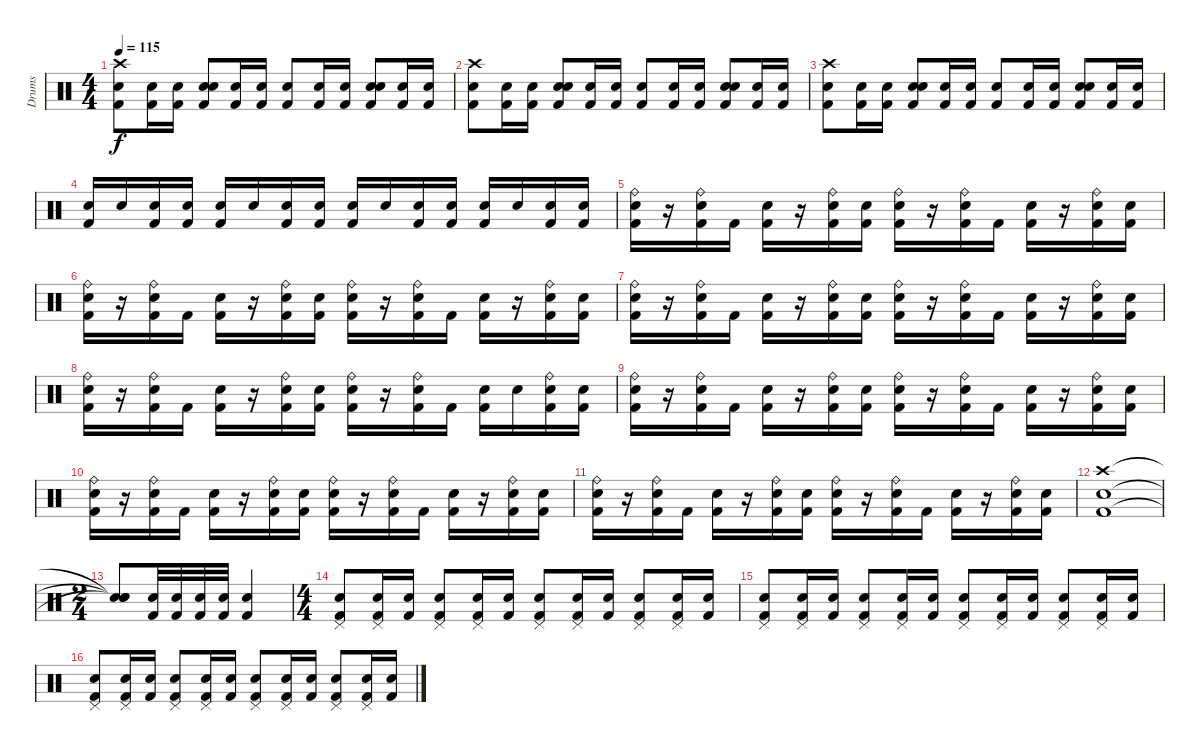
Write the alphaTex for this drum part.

\track ("Drums" "Drums") {instrument percussion}
\staff {score}
\articulation defaults
\ts (4 4)
\tempo 115
\clef neutral
\ks c
("Crash high (hit)" "Kick (hit) 2" "Snare (hit) 2").8{dy f} ("Kick (hit) 2" "Snare (hit) 2").16 ("Kick (hit) 2" "Snare (hit) 2").16 ("Electric Snare (hit)" "Kick (hit) 2" "Snare (hit) 2").8 ("Kick (hit) 2" "Snare (hit) 2").16 ("Kick (hit) 2" "Snare (hit) 2").16 ("Kick (hit) 2" "Snare (hit) 2").8 ("Kick (hit) 2" "Snare (hit) 2").16 ("Kick (hit) 2" "Snare (hit) 2").16 ("Electric Snare (hit)" "Kick (hit) 2" "Snare (hit) 2").8 ("Kick (hit) 2" "Snare (hit) 2").16 ("Kick (hit) 2" "Snare (hit) 2").16 |
("Crash high (hit)" "Kick (hit) 2" "Snare (hit) 2").8 ("Kick (hit) 2" "Snare (hit) 2").16 ("Kick (hit) 2" "Snare (hit) 2").16 ("Electric Snare (hit)" "Kick (hit) 2" "Snare (hit) 2").8 ("Kick (hit) 2" "Snare (hit) 2").16 ("Kick (hit) 2" "Snare (hit) 2").16 ("Kick (hit) 2" "Snare (hit) 2").8 ("Kick (hit) 2" "Snare (hit) 2").16 ("Kick (hit) 2" "Snare (hit) 2").16 ("Electric Snare (hit)" "Kick (hit) 2" "Snare (hit) 2").8 ("Kick (hit) 2" "Snare (hit) 2").16 ("Kick (hit) 2" "Snare (hit) 2").16 |
("Crash high (hit)" "Kick (hit) 2" "Snare (hit) 2").8 ("Kick (hit) 2" "Snare (hit) 2").16 ("Kick (hit) 2" "Snare (hit) 2").16 ("Electric Snare (hit)" "Kick (hit) 2" "Snare (hit) 2").8 ("Kick (hit) 2" "Snare (hit) 2").16 ("Kick (hit) 2" "Snare (hit) 2").16 ("Kick (hit) 2" "Snare (hit) 2").8 ("Kick (hit) 2" "Snare (hit) 2").16 ("Kick (hit) 2" "Snare (hit) 2").16 ("Electric Snare (hit)" "Kick (hit) 2" "Snare (hit) 2").8 ("Kick (hit) 2" "Snare (hit) 2").16 ("Kick (hit) 2" "Snare (hit) 2").16 |
("Kick (hit) 2" "Snare (hit) 2").16 "Snare (hit) 2".16 ("Kick (hit) 2" "Snare (hit) 2").16 ("Kick (hit) 2" "Snare (hit) 2").16 ("Kick (hit) 2" "Snare (hit) 2").16 "Snare (hit) 2".16 ("Kick (hit) 2" "Snare (hit) 2").16 ("Kick (hit) 2" "Snare (hit) 2").16 ("Kick (hit) 2" "Electric Snare (hit)").16 "Electric Snare (hit)".16 ("Kick (hit) 2" "Electric Snare (hit)").16 ("Kick (hit) 2" "Electric Snare (hit)").16 ("Kick (hit) 2" "Electric Snare (hit)").16 "Electric Snare (hit)".16 ("Kick (hit) 2" "Electric Snare (hit)").16 ("Kick (hit) 2" "Electric Snare (hit)").16 |
("Ride (bell)" "Snare (hit) 2" "Kick (hit) 2").16 r.16 ("Ride (bell)" "Snare (hit) 2" "Kick (hit) 2").16 "Kick (hit) 2".16 ("Electric Snare (hit)" "Kick (hit) 2").16 r.16 ("Ride (bell)" "Snare (hit) 2" "Kick (hit) 2").16 ("Snare (hit) 2" "Kick (hit) 2").16 ("Ride (bell)" "Snare (hit) 2" "Kick (hit) 2").16 r.16 ("Ride (bell)" "Snare (hit) 2" "Kick (hit) 2").16 "Kick (hit) 2".16 ("Electric Snare (hit)" "Kick (hit) 2").16 r.16 ("Ride (bell)" "Snare (hit) 2" "Kick (hit) 2").16 ("Snare (hit) 2" "Kick (hit) 2").16 |
("Ride (bell)" "Snare (hit) 2" "Kick (hit) 2").16 r.16 ("Ride (bell)" "Snare (hit) 2" "Kick (hit) 2").16 "Kick (hit) 2".16 ("Electric Snare (hit)" "Kick (hit) 2").16 r.16 ("Ride (bell)" "Snare (hit) 2" "Kick (hit) 2").16 ("Snare (hit) 2" "Kick (hit) 2").16 ("Ride (bell)" "Snare (hit) 2" "Kick (hit) 2").16 r.16 ("Ride (bell)" "Snare (hit) 2" "Kick (hit) 2").16 "Kick (hit) 2".16 ("Electric Snare (hit)" "Kick (hit) 2").16 r.16 ("Ride (bell)" "Snare (hit) 2" "Kick (hit) 2").16 ("Snare (hit) 2" "Kick (hit) 2").16 |
("Ride (bell)" "Snare (hit) 2" "Kick (hit) 2").16 r.16 ("Ride (bell)" "Snare (hit) 2" "Kick (hit) 2").16 "Kick (hit) 2".16 ("Electric Snare (hit)" "Kick (hit) 2").16 r.16 ("Ride (bell)" "Snare (hit) 2" "Kick (hit) 2").16 ("Snare (hit) 2" "Kick (hit) 2").16 ("Ride (bell)" "Snare (hit) 2" "Kick (hit) 2").16 r.16 ("Ride (bell)" "Snare (hit) 2" "Kick (hit) 2").16 "Kick (hit) 2".16 ("Electric Snare (hit)" "Kick (hit) 2").16 r.16 ("Ride (bell)" "Snare (hit) 2" "Kick (hit) 2").16 ("Snare (hit) 2" "Kick (hit) 2").16 |
("Ride (bell)" "Snare (hit) 2" "Kick (hit) 2").16 r.16 ("Ride (bell)" "Snare (hit) 2" "Kick (hit) 2").16 "Kick (hit) 2".16 ("Electric Snare (hit)" "Kick (hit) 2").16 r.16 ("Ride (bell)" "Snare (hit) 2" "Kick (hit) 2").16 ("Snare (hit) 2" "Kick (hit) 2").16 ("Ride (bell)" "Snare (hit) 2" "Kick (hit) 2").16 r.16 ("Ride (bell)" "Snare (hit) 2" "Kick (hit) 2").16 "Kick (hit) 2".16 ("Electric Snare (hit)" "Kick (hit) 2").16 "Electric Snare (hit)".16 ("Ride (bell)" "Electric Snare (hit)" "Kick (hit) 2").16 ("Electric Snare (hit)" "Kick (hit) 2").16 |
("Ride (bell)" "Snare (hit) 2" "Kick (hit) 2").16 r.16 ("Ride (bell)" "Snare (hit) 2" "Kick (hit) 2").16 "Kick (hit) 2".16 ("Electric Snare (hit)" "Kick (hit) 2").16 r.16 ("Ride (bell)" "Snare (hit) 2" "Kick (hit) 2").16 ("Snare (hit) 2" "Kick (hit) 2").16 ("Ride (bell)" "Snare (hit) 2" "Kick (hit) 2").16 r.16 ("Ride (bell)" "Snare (hit) 2" "Kick (hit) 2").16 "Kick (hit) 2".16 ("Electric Snare (hit)" "Kick (hit) 2").16 r.16 ("Ride (bell)" "Snare (hit) 2" "Kick (hit) 2").16 ("Snare (hit) 2" "Kick (hit) 2").16 |
("Ride (bell)" "Snare (hit) 2" "Kick (hit) 2").16 r.16 ("Ride (bell)" "Snare (hit) 2" "Kick (hit) 2").16 "Kick (hit) 2".16 ("Electric Snare (hit)" "Kick (hit) 2").16 r.16 ("Ride (bell)" "Snare (hit) 2" "Kick (hit) 2").16 ("Snare (hit) 2" "Kick (hit) 2").16 ("Ride (bell)" "Snare (hit) 2" "Kick (hit) 2").16 r.16 ("Ride (bell)" "Snare (hit) 2" "Kick (hit) 2").16 "Kick (hit) 2".16 ("Electric Snare (hit)" "Kick (hit) 2").16 r.16 ("Ride (bell)" "Snare (hit) 2" "Kick (hit) 2").16 ("Snare (hit) 2" "Kick (hit) 2").16 |
("Ride (bell)" "Snare (hit) 2" "Kick (hit) 2").16 r.16 ("Ride (bell)" "Snare (hit) 2" "Kick (hit) 2").16 "Kick (hit) 2".16 ("Electric Snare (hit)" "Kick (hit) 2").16 r.16 ("Ride (bell)" "Snare (hit) 2" "Kick (hit) 2").16 ("Snare (hit) 2" "Kick (hit) 2").16 ("Ride (bell)" "Snare (hit) 2" "Kick (hit) 2").16 r.16 ("Ride (bell)" "Snare (hit) 2" "Kick (hit) 2").16 "Kick (hit) 2".16 ("Electric Snare (hit)" "Kick (hit) 2").16 r.16 ("Ride (bell)" "Snare (hit) 2" "Kick (hit) 2").16 ("Snare (hit) 2" "Kick (hit) 2").16 |
("Kick (hit) 2" "Crash high (hit)" "Snare (hit) 2").1 |
\ts (2 4)
("Snare (hit)"{t} "Snare (hit)"{t} "Snare (hit)"{t}).8 ("Electric Snare (hit)" "Kick (hit) 2").32 ("Electric Snare (hit)" "Kick (hit) 2").32 ("Electric Snare (hit)" "Kick (hit) 2").32 ("Electric Snare (hit)" "Kick (hit) 2").32 ("Electric Snare (hit)" "Kick (hit) 2").4 |
\ts (4 4)
("Pedal Hi-Hat (hit)" "Kick (hit) 2" "Snare (hit) 2").8 ("Pedal Hi-Hat (hit)" "Kick (hit) 2" "Snare (hit) 2").16 ("Kick (hit) 2" "Snare (hit) 2").16 ("Pedal Hi-Hat (hit)" "Electric Snare (hit)" "Kick (hit) 2").8 ("Pedal Hi-Hat (hit)" "Kick (hit) 2" "Snare (hit) 2").16 ("Kick (hit) 2" "Snare (hit) 2").16 ("Pedal Hi-Hat (hit)" "Kick (hit) 2" "Snare (hit) 2").8 ("Pedal Hi-Hat (hit)" "Kick (hit) 2" "Snare (hit) 2").16 ("Kick (hit) 2" "Snare (hit) 2").16 ("Pedal Hi-Hat (hit)" "Electric Snare (hit)" "Kick (hit) 2").8 ("Pedal Hi-Hat (hit)" "Kick (hit) 2" "Snare (hit) 2").16 ("Kick (hit) 2" "Snare (hit) 2").16 |
("Pedal Hi-Hat (hit)" "Kick (hit) 2" "Snare (hit) 2").8 ("Pedal Hi-Hat (hit)" "Kick (hit) 2" "Snare (hit) 2").16 ("Kick (hit) 2" "Snare (hit) 2").16 ("Pedal Hi-Hat (hit)" "Electric Snare (hit)" "Kick (hit) 2").8 ("Pedal Hi-Hat (hit)" "Kick (hit) 2" "Snare (hit) 2").16 ("Kick (hit) 2" "Snare (hit) 2").16 ("Pedal Hi-Hat (hit)" "Kick (hit) 2" "Snare (hit) 2").8 ("Pedal Hi-Hat (hit)" "Kick (hit) 2" "Snare (hit) 2").16 ("Kick (hit) 2" "Snare (hit) 2").16 ("Pedal Hi-Hat (hit)" "Electric Snare (hit)" "Kick (hit) 2").8 ("Pedal Hi-Hat (hit)" "Kick (hit) 2" "Snare (hit) 2").16 ("Kick (hit) 2" "Snare (hit) 2").16 |
("Pedal Hi-Hat (hit)" "Kick (hit) 2" "Snare (hit) 2").8 ("Pedal Hi-Hat (hit)" "Kick (hit) 2" "Snare (hit) 2").16 ("Kick (hit) 2" "Snare (hit) 2").16 ("Pedal Hi-Hat (hit)" "Electric Snare (hit)" "Kick (hit) 2").8 ("Pedal Hi-Hat (hit)" "Kick (hit) 2" "Snare (hit) 2").16 ("Kick (hit) 2" "Snare (hit) 2").16 ("Pedal Hi-Hat (hit)" "Kick (hit) 2" "Snare (hit) 2").8 ("Pedal Hi-Hat (hit)" "Kick (hit) 2" "Snare (hit) 2").16 ("Kick (hit) 2" "Snare (hit) 2").16 ("Pedal Hi-Hat (hit)" "Electric Snare (hit)" "Kick (hit) 2").8 ("Pedal Hi-Hat (hit)" "Kick (hit) 2" "Snare (hit) 2").16 ("Kick (hit) 2" "Snare (hit) 2").16
